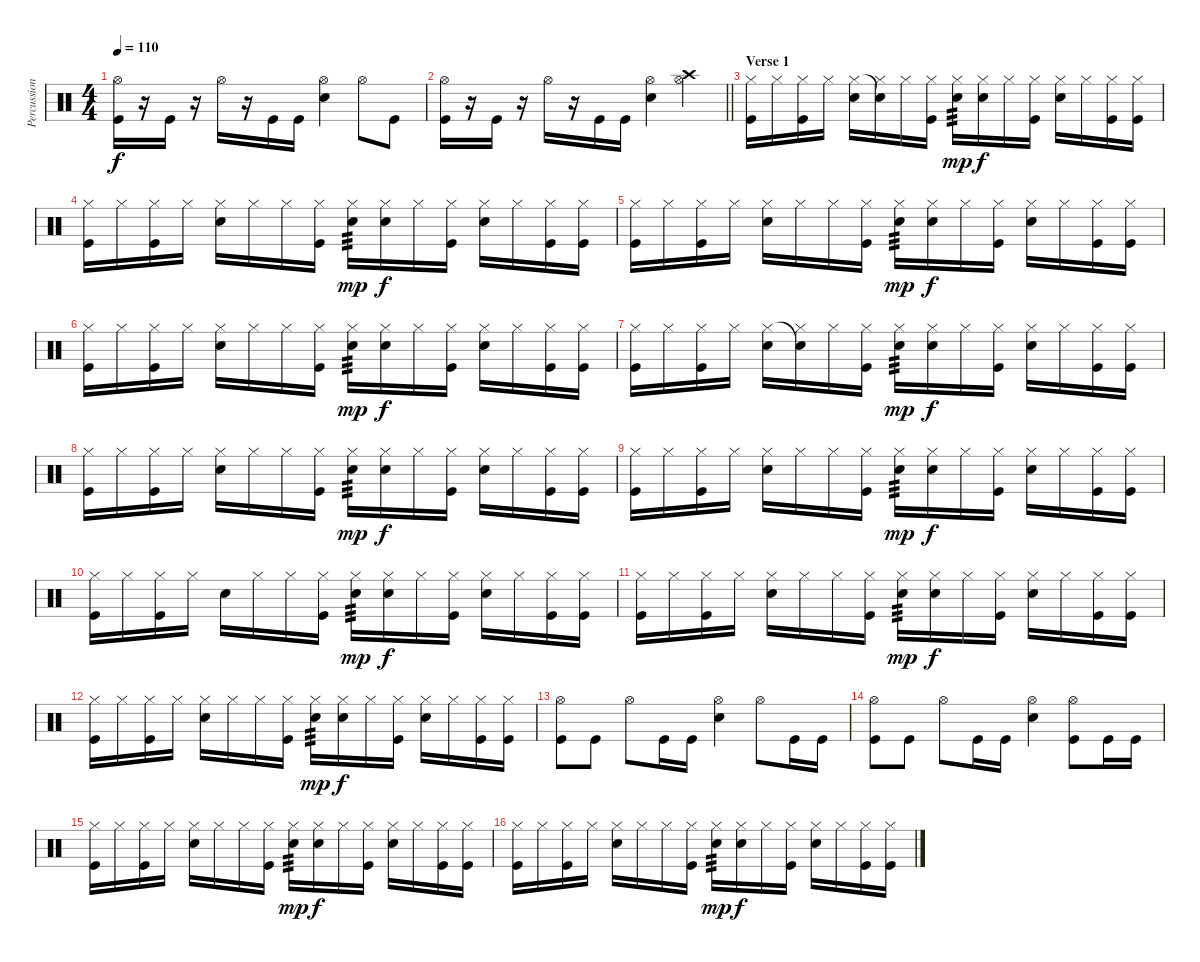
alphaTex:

\track ("Percussion" "Percussion") {instrument percussion}
\staff {score}
\articulation defaults
\ts (4 4)
\tempo 110
\clef neutral
\ks c
("Hi-Hat (open)" "Kick (hit)").16{dy f} r.16 "Kick (hit)".16 r.16 "Hi-Hat (open)".16 r.16 "Kick (hit)".16 "Kick (hit)".16 ("Hi-Hat (open)" "Snare (hit) 2").4 "Hi-Hat (open)".8 "Kick (hit)".8 |
\barLineRight lightlight
("Hi-Hat (open)" "Kick (hit)").16 r.16 "Kick (hit)".16 r.16 "Hi-Hat (open)".16 r.16 "Kick (hit)".16 "Kick (hit)".16 ("Hi-Hat (open)" "Snare (hit) 2").4 ("Crash high (hit)" "Hi-Hat (open)").4 |
\section ("" "Verse 1")
("Hi-Hat (closed)" "Kick (hit)").16 "Hi-Hat (closed)".16 ("Hi-Hat (closed)" "Kick (hit)").16 "Hi-Hat (closed)".16 ("Hi-Hat (closed)" "Snare (hit) 2").16 ("Snare (hit)"{t} "Hi-Hat (closed)").16 "Hi-Hat (closed)".16 ("Hi-Hat (closed)" "Kick (hit)").16 ("Hi-Hat (closed)" "Snare (hit) 2").16{tp 3 dy mp} ("Hi-Hat (closed)" "Snare (hit) 2").16{dy f} "Hi-Hat (closed)".16 ("Hi-Hat (closed)" "Kick (hit)").16 ("Hi-Hat (closed)" "Snare (hit) 2").16 "Hi-Hat (closed)".16 ("Hi-Hat (closed)" "Kick (hit)").16 ("Hi-Hat (closed)" "Kick (hit)").16 |
("Hi-Hat (closed)" "Kick (hit)").16 "Hi-Hat (closed)".16 ("Hi-Hat (closed)" "Kick (hit)").16 "Hi-Hat (closed)".16 ("Hi-Hat (closed)" "Snare (hit) 2").16 "Hi-Hat (closed)".16 "Hi-Hat (closed)".16 ("Hi-Hat (closed)" "Kick (hit)").16 ("Hi-Hat (closed)" "Snare (hit) 2").16{tp 3 dy mp} ("Hi-Hat (closed)" "Snare (hit) 2").16{dy f} "Hi-Hat (closed)".16 ("Hi-Hat (closed)" "Kick (hit)").16 ("Hi-Hat (closed)" "Snare (hit) 2").16 "Hi-Hat (closed)".16 ("Hi-Hat (closed)" "Kick (hit)").16 ("Hi-Hat (closed)" "Kick (hit)").16 |
("Hi-Hat (closed)" "Kick (hit)").16 "Hi-Hat (closed)".16 ("Hi-Hat (closed)" "Kick (hit)").16 "Hi-Hat (closed)".16 ("Hi-Hat (closed)" "Snare (hit) 2").16 "Hi-Hat (closed)".16 "Hi-Hat (closed)".16 ("Hi-Hat (closed)" "Kick (hit)").16 ("Hi-Hat (closed)" "Snare (hit) 2").16{tp 3 dy mp} ("Hi-Hat (closed)" "Snare (hit) 2").16{dy f} "Hi-Hat (closed)".16 ("Hi-Hat (closed)" "Kick (hit)").16 ("Hi-Hat (closed)" "Snare (hit) 2").16 "Hi-Hat (closed)".16 ("Hi-Hat (closed)" "Kick (hit)").16 ("Hi-Hat (closed)" "Kick (hit)").16 |
("Hi-Hat (closed)" "Kick (hit)").16 "Hi-Hat (closed)".16 ("Hi-Hat (closed)" "Kick (hit)").16 "Hi-Hat (closed)".16 ("Hi-Hat (closed)" "Snare (hit) 2").16 "Hi-Hat (closed)".16 "Hi-Hat (closed)".16 ("Hi-Hat (closed)" "Kick (hit)").16 ("Hi-Hat (closed)" "Snare (hit) 2").16{tp 3 dy mp} ("Hi-Hat (closed)" "Snare (hit) 2").16{dy f} "Hi-Hat (closed)".16 ("Hi-Hat (closed)" "Kick (hit)").16 ("Hi-Hat (closed)" "Snare (hit) 2").16 "Hi-Hat (closed)".16 ("Hi-Hat (closed)" "Kick (hit)").16 ("Hi-Hat (closed)" "Kick (hit)").16 |
("Hi-Hat (closed)" "Kick (hit)").16 "Hi-Hat (closed)".16 ("Hi-Hat (closed)" "Kick (hit)").16 "Hi-Hat (closed)".16 ("Hi-Hat (closed)" "Snare (hit) 2").16 ("Snare (hit)"{t} "Hi-Hat (closed)").16 "Hi-Hat (closed)".16 ("Hi-Hat (closed)" "Kick (hit)").16 ("Hi-Hat (closed)" "Snare (hit) 2").16{tp 3 dy mp} ("Hi-Hat (closed)" "Snare (hit) 2").16{dy f} "Hi-Hat (closed)".16 ("Hi-Hat (closed)" "Kick (hit)").16 ("Hi-Hat (closed)" "Snare (hit) 2").16 "Hi-Hat (closed)".16 ("Hi-Hat (closed)" "Kick (hit)").16 ("Hi-Hat (closed)" "Kick (hit)").16 |
("Hi-Hat (closed)" "Kick (hit)").16 "Hi-Hat (closed)".16 ("Hi-Hat (closed)" "Kick (hit)").16 "Hi-Hat (closed)".16 ("Hi-Hat (closed)" "Snare (hit) 2").16 "Hi-Hat (closed)".16 "Hi-Hat (closed)".16 ("Hi-Hat (closed)" "Kick (hit)").16 ("Hi-Hat (closed)" "Snare (hit) 2").16{tp 3 dy mp} ("Hi-Hat (closed)" "Snare (hit) 2").16{dy f} "Hi-Hat (closed)".16 ("Hi-Hat (closed)" "Kick (hit)").16 ("Hi-Hat (closed)" "Snare (hit) 2").16 "Hi-Hat (closed)".16 ("Hi-Hat (closed)" "Kick (hit)").16 ("Hi-Hat (closed)" "Kick (hit)").16 |
("Hi-Hat (closed)" "Kick (hit)").16 "Hi-Hat (closed)".16 ("Hi-Hat (closed)" "Kick (hit)").16 "Hi-Hat (closed)".16 ("Hi-Hat (closed)" "Snare (hit) 2").16 "Hi-Hat (closed)".16 "Hi-Hat (closed)".16 ("Hi-Hat (closed)" "Kick (hit)").16 ("Hi-Hat (closed)" "Snare (hit) 2").16{tp 3 dy mp} ("Hi-Hat (closed)" "Snare (hit) 2").16{dy f} "Hi-Hat (closed)".16 ("Hi-Hat (closed)" "Kick (hit)").16 ("Hi-Hat (closed)" "Snare (hit) 2").16 "Hi-Hat (closed)".16 ("Hi-Hat (closed)" "Kick (hit)").16 ("Hi-Hat (closed)" "Kick (hit)").16 |
("Hi-Hat (closed)" "Kick (hit)").16 "Hi-Hat (closed)".16 ("Hi-Hat (closed)" "Kick (hit)").16 "Hi-Hat (closed)".16 "Snare (hit) 2".16 "Hi-Hat (closed)".16 "Hi-Hat (closed)".16 ("Hi-Hat (closed)" "Kick (hit)").16 ("Hi-Hat (closed)" "Snare (hit) 2").16{tp 3 dy mp} ("Hi-Hat (closed)" "Snare (hit) 2").16{dy f} "Hi-Hat (closed)".16 ("Hi-Hat (closed)" "Kick (hit)").16 ("Hi-Hat (closed)" "Snare (hit) 2").16 "Hi-Hat (closed)".16 ("Hi-Hat (closed)" "Kick (hit)").16 ("Hi-Hat (closed)" "Kick (hit)").16 |
("Hi-Hat (closed)" "Kick (hit)").16 "Hi-Hat (closed)".16 ("Hi-Hat (closed)" "Kick (hit)").16 "Hi-Hat (closed)".16 ("Hi-Hat (closed)" "Snare (hit) 2").16 "Hi-Hat (closed)".16 "Hi-Hat (closed)".16 ("Hi-Hat (closed)" "Kick (hit)").16 ("Hi-Hat (closed)" "Snare (hit) 2").16{tp 3 dy mp} ("Hi-Hat (closed)" "Snare (hit) 2").16{dy f} "Hi-Hat (closed)".16 ("Hi-Hat (closed)" "Kick (hit)").16 ("Hi-Hat (closed)" "Snare (hit) 2").16 "Hi-Hat (closed)".16 ("Hi-Hat (closed)" "Kick (hit)").16 ("Hi-Hat (closed)" "Kick (hit)").16 |
("Hi-Hat (closed)" "Kick (hit)").16 "Hi-Hat (closed)".16 ("Hi-Hat (closed)" "Kick (hit)").16 "Hi-Hat (closed)".16 ("Hi-Hat (closed)" "Snare (hit) 2").16 "Hi-Hat (closed)".16 "Hi-Hat (closed)".16 ("Hi-Hat (closed)" "Kick (hit)").16 ("Hi-Hat (closed)" "Snare (hit) 2").16{tp 3 dy mp} ("Hi-Hat (closed)" "Snare (hit) 2").16{dy f} "Hi-Hat (closed)".16 ("Hi-Hat (closed)" "Kick (hit)").16 ("Hi-Hat (closed)" "Snare (hit) 2").16 "Hi-Hat (closed)".16 ("Hi-Hat (closed)" "Kick (hit)").16 ("Hi-Hat (closed)" "Kick (hit)").16 |
("Hi-Hat (open)" "Kick (hit)").8 "Kick (hit)".8 "Hi-Hat (open)".8 "Kick (hit)".16 "Kick (hit)".16 ("Hi-Hat (open)" "Snare (hit) 2").4 "Hi-Hat (open)".8 "Kick (hit)".16 "Kick (hit)".16 |
("Hi-Hat (open)" "Kick (hit)").8 "Kick (hit)".8 "Hi-Hat (open)".8 "Kick (hit)".16 "Kick (hit)".16 ("Hi-Hat (open)" "Snare (hit) 2").4 ("Hi-Hat (open)" "Kick (hit)").8 "Kick (hit)".16 "Kick (hit)".16 |
("Hi-Hat (closed)" "Kick (hit)").16 "Hi-Hat (closed)".16 ("Hi-Hat (closed)" "Kick (hit)").16 "Hi-Hat (closed)".16 ("Hi-Hat (closed)" "Snare (hit) 2").16 "Hi-Hat (closed)".16 "Hi-Hat (closed)".16 ("Hi-Hat (closed)" "Kick (hit)").16 ("Hi-Hat (closed)" "Snare (hit) 2").16{tp 3 dy mp} ("Hi-Hat (closed)" "Snare (hit) 2").16{dy f} "Hi-Hat (closed)".16 ("Hi-Hat (closed)" "Kick (hit)").16 ("Hi-Hat (closed)" "Snare (hit) 2").16 "Hi-Hat (closed)".16 ("Hi-Hat (closed)" "Kick (hit)").16 ("Hi-Hat (closed)" "Kick (hit)").16 |
("Hi-Hat (closed)" "Kick (hit)").16 "Hi-Hat (closed)".16 ("Hi-Hat (closed)" "Kick (hit)").16 "Hi-Hat (closed)".16 ("Hi-Hat (closed)" "Snare (hit) 2").16 "Hi-Hat (closed)".16 "Hi-Hat (closed)".16 ("Hi-Hat (closed)" "Kick (hit)").16 ("Hi-Hat (closed)" "Snare (hit) 2").16{tp 3 dy mp} ("Hi-Hat (closed)" "Snare (hit) 2").16{dy f} "Hi-Hat (closed)".16 ("Hi-Hat (closed)" "Kick (hit)").16 ("Hi-Hat (closed)" "Snare (hit) 2").16 "Hi-Hat (closed)".16 ("Hi-Hat (closed)" "Kick (hit)").16 ("Hi-Hat (closed)" "Kick (hit)").16
